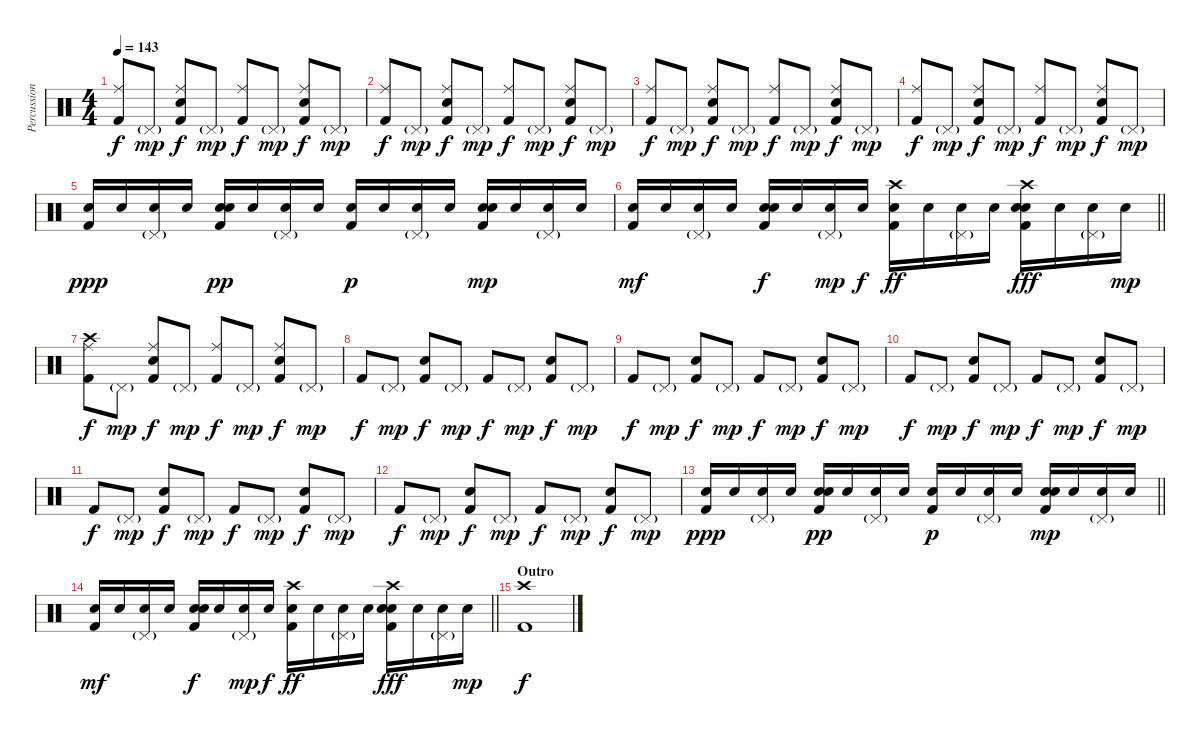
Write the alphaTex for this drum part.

\track ("Percussion" "Percussion") {instrument percussion}
\staff {score}
\articulation defaults
\ts (4 4)
\tempo 143
\clef neutral
\ks c
("Ride (middle)" "Kick (hit) 2").8{dy f} "Pedal Hi-Hat (hit)"{g}.8{dy mp} ("Electric Snare (hit)" "Ride (middle)" "Kick (hit) 2").8{dy f} "Pedal Hi-Hat (hit)"{g}.8{dy mp} ("Ride (middle)" "Kick (hit) 2").8{dy f} "Pedal Hi-Hat (hit)"{g}.8{dy mp} ("Electric Snare (hit)" "Ride (middle)" "Kick (hit) 2").8{dy f} "Pedal Hi-Hat (hit)"{g}.8{dy mp} |
("Ride (middle)" "Kick (hit) 2").8{dy f} "Pedal Hi-Hat (hit)"{g}.8{dy mp} ("Electric Snare (hit)" "Ride (middle)" "Kick (hit) 2").8{dy f} "Pedal Hi-Hat (hit)"{g}.8{dy mp} ("Ride (middle)" "Kick (hit) 2").8{dy f} "Pedal Hi-Hat (hit)"{g}.8{dy mp} ("Electric Snare (hit)" "Ride (middle)" "Kick (hit) 2").8{dy f} "Pedal Hi-Hat (hit)"{g}.8{dy mp} |
("Ride (middle)" "Kick (hit) 2").8{dy f} "Pedal Hi-Hat (hit)"{g}.8{dy mp} ("Electric Snare (hit)" "Ride (middle)" "Kick (hit) 2").8{dy f} "Pedal Hi-Hat (hit)"{g}.8{dy mp} ("Ride (middle)" "Kick (hit) 2").8{dy f} "Pedal Hi-Hat (hit)"{g}.8{dy mp} ("Electric Snare (hit)" "Ride (middle)" "Kick (hit) 2").8{dy f} "Pedal Hi-Hat (hit)"{g}.8{dy mp} |
("Ride (middle)" "Kick (hit) 2").8{dy f} "Pedal Hi-Hat (hit)"{g}.8{dy mp} ("Electric Snare (hit)" "Ride (middle)" "Kick (hit) 2").8{dy f} "Pedal Hi-Hat (hit)"{g}.8{dy mp} ("Ride (middle)" "Kick (hit) 2").8{dy f} "Pedal Hi-Hat (hit)"{g}.8{dy mp} ("Electric Snare (hit)" "Ride (middle)" "Kick (hit) 2").8{dy f} "Pedal Hi-Hat (hit)"{g}.8{dy mp} |
("Snare (hit) 2" "Kick (hit) 2").16{dy ppp} "Snare (hit) 2".16 ("Pedal Hi-Hat (hit)"{g} "Snare (hit) 2").16 "Snare (hit) 2".16 ("Electric Snare (hit)" "Snare (hit) 2" "Kick (hit) 2").16{dy pp} "Snare (hit) 2".16 ("Pedal Hi-Hat (hit)"{g} "Snare (hit) 2").16 "Snare (hit) 2".16 ("Snare (hit) 2" "Kick (hit) 2").16{dy p} "Snare (hit) 2".16 ("Pedal Hi-Hat (hit)"{g} "Snare (hit) 2").16 "Snare (hit) 2".16 ("Electric Snare (hit)" "Snare (hit) 2" "Kick (hit) 2").16{dy mp} "Snare (hit) 2".16 ("Pedal Hi-Hat (hit)"{g} "Snare (hit) 2").16 "Snare (hit) 2".16 |
\barLineRight lightlight
("Snare (hit) 2" "Kick (hit) 2").16{dy mf} "Snare (hit) 2".16 ("Pedal Hi-Hat (hit)"{g} "Snare (hit) 2").16 "Snare (hit) 2".16 ("Electric Snare (hit)" "Snare (hit) 2" "Kick (hit) 2").16{dy f} "Snare (hit) 2".16 ("Pedal Hi-Hat (hit)"{g} "Snare (hit) 2").16{dy mp} "Snare (hit) 2".16{dy f} ("Crash high (hit)" "Snare (hit) 2" "Kick (hit) 2").16{dy ff} "Snare (hit) 2".16 ("Pedal Hi-Hat (hit)"{g} "Snare (hit) 2").16 "Snare (hit) 2".16 ("Electric Snare (hit)" "Crash high (hit)" "Snare (hit) 2" "Kick (hit) 2").16{dy fff} "Snare (hit) 2".16 ("Pedal Hi-Hat (hit)"{g} "Snare (hit) 2").16 "Snare (hit) 2".16{dy mp} |
("Crash high (hit)" "Ride (middle)" "Kick (hit) 2").8{dy f} "Pedal Hi-Hat (hit)"{g}.8{dy mp} ("Electric Snare (hit)" "Ride (middle)" "Kick (hit) 2").8{dy f} "Pedal Hi-Hat (hit)"{g}.8{dy mp} ("Ride (middle)" "Kick (hit) 2").8{dy f} "Pedal Hi-Hat (hit)"{g}.8{dy mp} ("Electric Snare (hit)" "Ride (middle)" "Kick (hit) 2").8{dy f} "Pedal Hi-Hat (hit)"{g}.8{dy mp} |
"Kick (hit) 2".8{dy f} "Pedal Hi-Hat (hit)"{g}.8{dy mp} ("Electric Snare (hit)" "Kick (hit) 2").8{dy f} "Pedal Hi-Hat (hit)"{g}.8{dy mp} "Kick (hit) 2".8{dy f} "Pedal Hi-Hat (hit)"{g}.8{dy mp} ("Electric Snare (hit)" "Kick (hit) 2").8{dy f} "Pedal Hi-Hat (hit)"{g}.8{dy mp} |
"Kick (hit) 2".8{dy f} "Pedal Hi-Hat (hit)"{g}.8{dy mp} ("Electric Snare (hit)" "Kick (hit) 2").8{dy f} "Pedal Hi-Hat (hit)"{g}.8{dy mp} "Kick (hit) 2".8{dy f} "Pedal Hi-Hat (hit)"{g}.8{dy mp} ("Electric Snare (hit)" "Kick (hit) 2").8{dy f} "Pedal Hi-Hat (hit)"{g}.8{dy mp} |
"Kick (hit) 2".8{dy f} "Pedal Hi-Hat (hit)"{g}.8{dy mp} ("Electric Snare (hit)" "Kick (hit) 2").8{dy f} "Pedal Hi-Hat (hit)"{g}.8{dy mp} "Kick (hit) 2".8{dy f} "Pedal Hi-Hat (hit)"{g}.8{dy mp} ("Electric Snare (hit)" "Kick (hit) 2").8{dy f} "Pedal Hi-Hat (hit)"{g}.8{dy mp} |
"Kick (hit) 2".8{dy f} "Pedal Hi-Hat (hit)"{g}.8{dy mp} ("Electric Snare (hit)" "Kick (hit) 2").8{dy f} "Pedal Hi-Hat (hit)"{g}.8{dy mp} "Kick (hit) 2".8{dy f} "Pedal Hi-Hat (hit)"{g}.8{dy mp} ("Electric Snare (hit)" "Kick (hit) 2").8{dy f} "Pedal Hi-Hat (hit)"{g}.8{dy mp} |
"Kick (hit) 2".8{dy f} "Pedal Hi-Hat (hit)"{g}.8{dy mp} ("Electric Snare (hit)" "Kick (hit) 2").8{dy f} "Pedal Hi-Hat (hit)"{g}.8{dy mp} "Kick (hit) 2".8{dy f} "Pedal Hi-Hat (hit)"{g}.8{dy mp} ("Electric Snare (hit)" "Kick (hit) 2").8{dy f} "Pedal Hi-Hat (hit)"{g}.8{dy mp} |
\barLineRight lightlight
("Snare (hit) 2" "Kick (hit) 2").16{dy ppp} "Snare (hit) 2".16 ("Pedal Hi-Hat (hit)"{g} "Snare (hit) 2").16 "Snare (hit) 2".16 ("Electric Snare (hit)" "Snare (hit) 2" "Kick (hit) 2").16{dy pp} "Snare (hit) 2".16 ("Pedal Hi-Hat (hit)"{g} "Snare (hit) 2").16 "Snare (hit) 2".16 ("Snare (hit) 2" "Kick (hit) 2").16{dy p} "Snare (hit) 2".16 ("Pedal Hi-Hat (hit)"{g} "Snare (hit) 2").16 "Snare (hit) 2".16 ("Electric Snare (hit)" "Snare (hit) 2" "Kick (hit) 2").16{dy mp} "Snare (hit) 2".16 ("Pedal Hi-Hat (hit)"{g} "Snare (hit) 2").16 "Snare (hit) 2".16 |
\barLineRight lightlight
("Snare (hit) 2" "Kick (hit) 2").16{dy mf} "Snare (hit) 2".16 ("Pedal Hi-Hat (hit)"{g} "Snare (hit) 2").16 "Snare (hit) 2".16 ("Electric Snare (hit)" "Snare (hit) 2" "Kick (hit) 2").16{dy f} "Snare (hit) 2".16 ("Pedal Hi-Hat (hit)"{g} "Snare (hit) 2").16{dy mp} "Snare (hit) 2".16{dy f} ("Crash high (hit)" "Snare (hit) 2" "Kick (hit) 2").16{dy ff} "Snare (hit) 2".16 ("Pedal Hi-Hat (hit)"{g} "Snare (hit) 2").16 "Snare (hit) 2".16 ("Electric Snare (hit)" "Crash high (hit)" "Snare (hit) 2" "Kick (hit) 2").16{dy fff} "Snare (hit) 2".16 ("Pedal Hi-Hat (hit)"{g} "Snare (hit) 2").16 "Snare (hit) 2".16{dy mp} |
\section ("" "Outro")
("Crash high (hit)" "Kick (hit) 2").1{dy f}
